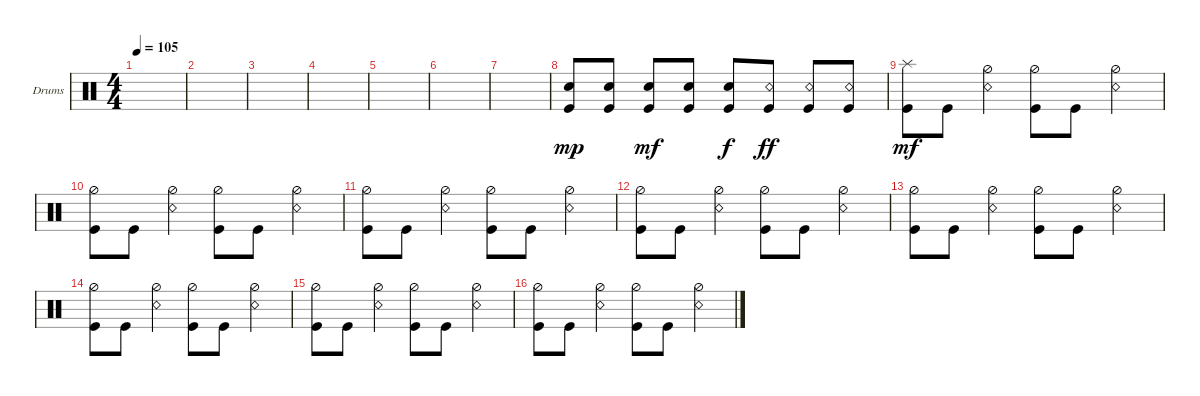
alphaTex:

\defaultSystemsLayout 4
\bracketExtendMode groupsimilarinstruments
\firstSystemTrackNameOrientation horizontal
\otherSystemsTrackNameOrientation horizontal
\track ("Drumkit" "Drums") {instrument percussion}
\staff {score}
\articulation defaults
\ts (4 4)
\tempo 105
\clef neutral
\ks c
|
|
|
|
|
|
|
("Kick (hit)" "Snare (hit) 2").8{dy mp} ("Kick (hit)" "Snare (hit) 2").8 ("Kick (hit)" "Snare (hit) 2").8{dy mf} ("Kick (hit)" "Snare (hit) 2").8 ("Kick (hit)" "Snare (hit) 2").8{dy f} ("Kick (hit)" "Snare (rim shot)").8{dy ff} ("Kick (hit)" "Snare (rim shot)").8 ("Kick (hit)" "Snare (rim shot)").8 |
("Kick (hit)" "Splash (hit)").8{dy mf} "Kick (hit)".8 ("Snare (rim shot)" "Hi-Hat (half)").4 ("Hi-Hat (half)" "Kick (hit)").8 "Kick (hit)".8 ("Snare (rim shot)" "Hi-Hat (half)").4 |
("Hi-Hat (half)" "Kick (hit)").8 "Kick (hit)".8 ("Snare (rim shot)" "Hi-Hat (half)").4 ("Hi-Hat (half)" "Kick (hit)").8 "Kick (hit)".8 ("Snare (rim shot)" "Hi-Hat (half)").4 |
("Hi-Hat (half)" "Kick (hit)").8 "Kick (hit)".8 ("Snare (rim shot)" "Hi-Hat (half)").4 ("Hi-Hat (half)" "Kick (hit)").8 "Kick (hit)".8 ("Snare (rim shot)" "Hi-Hat (half)").4 |
("Hi-Hat (half)" "Kick (hit)").8 "Kick (hit)".8 ("Snare (rim shot)" "Hi-Hat (half)").4 ("Hi-Hat (half)" "Kick (hit)").8 "Kick (hit)".8 ("Snare (rim shot)" "Hi-Hat (half)").4 |
("Hi-Hat (half)" "Kick (hit)").8 "Kick (hit)".8 ("Snare (rim shot)" "Hi-Hat (half)").4 ("Hi-Hat (half)" "Kick (hit)").8 "Kick (hit)".8 ("Snare (rim shot)" "Hi-Hat (half)").4 |
("Hi-Hat (half)" "Kick (hit)").8 "Kick (hit)".8 ("Snare (rim shot)" "Hi-Hat (half)").4 ("Hi-Hat (half)" "Kick (hit)").8 "Kick (hit)".8 ("Snare (rim shot)" "Hi-Hat (half)").4 |
("Hi-Hat (half)" "Kick (hit)").8 "Kick (hit)".8 ("Snare (rim shot)" "Hi-Hat (half)").4 ("Hi-Hat (half)" "Kick (hit)").8 "Kick (hit)".8 ("Snare (rim shot)" "Hi-Hat (half)").4 |
("Hi-Hat (half)" "Kick (hit)").8 "Kick (hit)".8 ("Snare (rim shot)" "Hi-Hat (half)").4 ("Hi-Hat (half)" "Kick (hit)").8 "Kick (hit)".8 ("Snare (rim shot)" "Hi-Hat (half)").4
